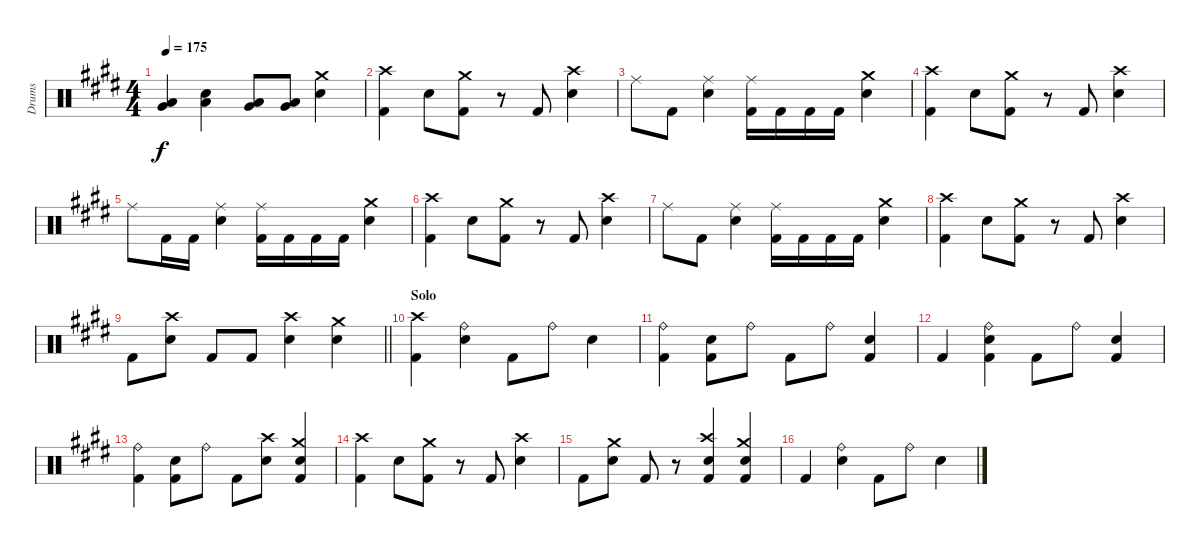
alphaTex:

\track ("Drums" "Drums") {instrument percussion}
\staff {score}
\articulation defaults
\ts (4 4)
\tempo 175
\clef neutral
\ks e
("Very Low Tom (hit)" "Low Floor Tom (hit)").4{dy f} ("Electric Snare (hit)" "Low Floor Tom (hit)").4 ("Very Low Tom (hit)" "Low Floor Tom (hit)").8 ("Very Low Tom (hit)" "Low Floor Tom (hit)").8 ("Crash medium (hit)" "Electric Snare (hit)").4 |
("Crash high (hit)" "Kick (hit) 2").4 "Electric Snare (hit)".8 ("Crash medium (hit)" "Kick (hit) 2").8 r.8 "Kick (hit) 2".8 ("Crash high (hit)" "Electric Snare (hit)").4 |
"Ride (middle)".8 "Kick (hit) 2".8 ("Ride (middle)" "Electric Snare (hit)").4 ("Ride (middle)" "Kick (hit) 2").16 "Kick (hit) 2".16 "Kick (hit) 2".16 "Kick (hit) 2".16 ("Crash medium (hit)" "Electric Snare (hit)").4 |
("Crash high (hit)" "Kick (hit) 2").4 "Electric Snare (hit)".8 ("Crash medium (hit)" "Kick (hit) 2").8 r.8 "Kick (hit) 2".8 ("Crash high (hit)" "Electric Snare (hit)").4 |
"Ride (middle)".8 "Kick (hit) 2".16 "Kick (hit) 2".16 ("Ride (middle)" "Electric Snare (hit)").4 ("Ride (middle)" "Kick (hit) 2").16 "Kick (hit) 2".16 "Kick (hit) 2".16 "Kick (hit) 2".16 ("Crash medium (hit)" "Electric Snare (hit)").4 |
("Crash high (hit)" "Kick (hit) 2").4 "Electric Snare (hit)".8 ("Crash medium (hit)" "Kick (hit) 2").8 r.8 "Kick (hit) 2".8 ("Crash high (hit)" "Electric Snare (hit)").4 |
"Ride (middle)".8 "Kick (hit) 2".8 ("Ride (middle)" "Electric Snare (hit)").4 ("Ride (middle)" "Kick (hit) 2").16 "Kick (hit) 2".16 "Kick (hit) 2".16 "Kick (hit) 2".16 ("Crash medium (hit)" "Electric Snare (hit)").4 |
("Crash high (hit)" "Kick (hit) 2").4 "Electric Snare (hit)".8 ("Crash medium (hit)" "Kick (hit) 2").8 r.8 "Kick (hit) 2".8 ("Crash high (hit)" "Electric Snare (hit)").4 |
\barLineRight lightlight "Kick (hit) 2".8
("Crash high (hit)" "Electric Snare (hit)").8 "Kick (hit) 2".8 "Kick (hit) 2".8 ("Crash high (hit)" "Electric Snare (hit)").4 ("Crash medium (hit)" "Electric Snare (hit)").4 |
\section ("" "Solo")
("Crash high (hit)" "Kick (hit) 2").4 ("Ride (bell)" "Electric Snare (hit)").4 "Kick (hit) 2".8 "Ride (bell)".8 "Electric Snare (hit)".4 |
("Ride (bell)" "Kick (hit) 2").4 ("Electric Snare (hit)" "Kick (hit) 2").8 "Ride (bell)".8 "Kick (hit) 2".8 "Ride (bell)".8 ("Electric Snare (hit)" "Kick (hit) 2").4 |
"Kick (hit) 2".4 ("Ride (bell)" "Electric Snare (hit)" "Kick (hit) 2").4 "Kick (hit) 2".8 "Ride (bell)".8 ("Electric Snare (hit)" "Kick (hit) 2").4 |
("Ride (bell)" "Kick (hit) 2").4 ("Electric Snare (hit)" "Kick (hit) 2").8 "Ride (bell)".8 "Kick (hit) 2".8 ("Crash high (hit)" "Electric Snare (hit)").8 ("Crash medium (hit)" "Electric Snare (hit)" "Kick (hit) 2").4 |
("Crash high (hit)" "Kick (hit) 2").4 "Electric Snare (hit)".8 ("Crash medium (hit)" "Kick (hit) 2").8 r.8 "Kick (hit) 2".8 ("Crash high (hit)" "Electric Snare (hit)").4 |
"Kick (hit) 2".8 ("Crash medium (hit)" "Electric Snare (hit)").8 "Kick (hit) 2".8 r.8 ("Crash high (hit)" "Electric Snare (hit)" "Kick (hit) 2").4 ("Crash medium (hit)" "Electric Snare (hit)" "Kick (hit) 2").4 |
"Kick (hit) 2".4 ("Ride (bell)" "Electric Snare (hit)").4 "Kick (hit) 2".8 "Ride (bell)".8 "Electric Snare (hit)".4
